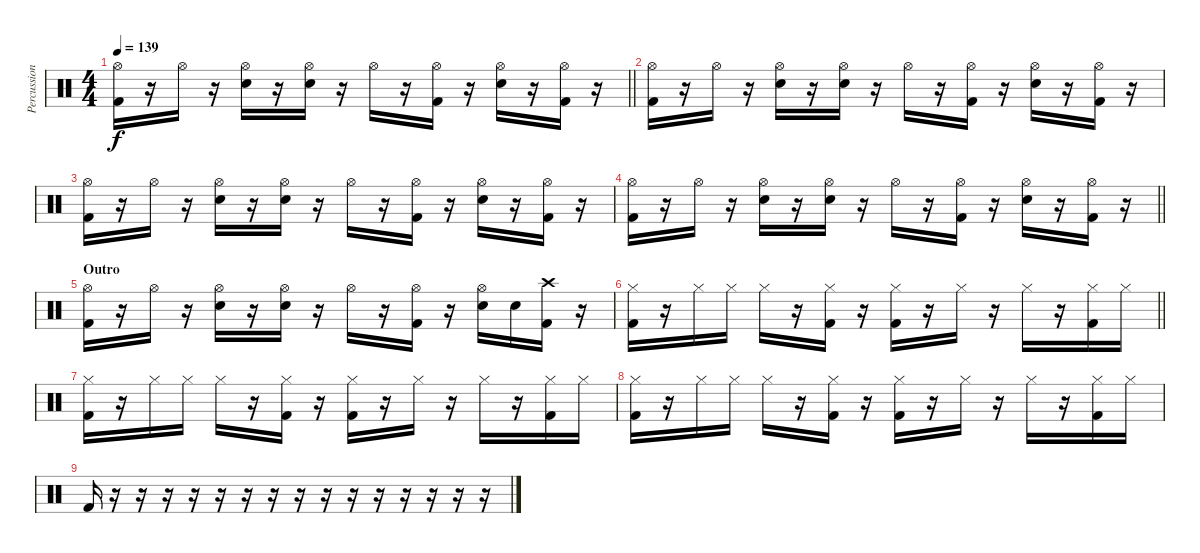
\track ("Percussion" "Percussion") {instrument percussion}
\staff {score}
\articulation defaults
\ts (4 4)
\tempo 139
\clef neutral
\barLineRight lightlight
\ks c
("Hi-Hat (open)" "Kick (hit) 2").16{dy f} r.16 "Hi-Hat (open)".16 r.16 ("Hi-Hat (open)" "Snare (hit) 2").16 r.16 ("Hi-Hat (open)" "Snare (hit) 2").16 r.16 "Hi-Hat (open)".16 r.16 ("Hi-Hat (open)" "Kick (hit) 2").16 r.16 ("Hi-Hat (open)" "Snare (hit) 2").16 r.16 ("Hi-Hat (open)" "Kick (hit) 2").16 r.16 |
("Hi-Hat (open)" "Kick (hit) 2").16 r.16 "Hi-Hat (open)".16 r.16 ("Hi-Hat (open)" "Snare (hit) 2").16 r.16 ("Hi-Hat (open)" "Snare (hit) 2").16 r.16 "Hi-Hat (open)".16 r.16 ("Hi-Hat (open)" "Kick (hit) 2").16 r.16 ("Hi-Hat (open)" "Snare (hit) 2").16 r.16 ("Hi-Hat (open)" "Kick (hit) 2").16 r.16 |
("Hi-Hat (open)" "Kick (hit) 2").16 r.16 "Hi-Hat (open)".16 r.16 ("Hi-Hat (open)" "Snare (hit) 2").16 r.16 ("Hi-Hat (open)" "Snare (hit) 2").16 r.16 "Hi-Hat (open)".16 r.16 ("Hi-Hat (open)" "Kick (hit) 2").16 r.16 ("Hi-Hat (open)" "Snare (hit) 2").16 r.16 ("Hi-Hat (open)" "Kick (hit) 2").16 r.16 |
\barLineRight lightlight
("Hi-Hat (open)" "Kick (hit) 2").16 r.16 "Hi-Hat (open)".16 r.16 ("Hi-Hat (open)" "Snare (hit) 2").16 r.16 ("Hi-Hat (open)" "Snare (hit) 2").16 r.16 "Hi-Hat (open)".16 r.16 ("Hi-Hat (open)" "Kick (hit) 2").16 r.16 ("Hi-Hat (open)" "Snare (hit) 2").16 r.16 ("Hi-Hat (open)" "Kick (hit) 2").16 r.16 |
\section ("" "Outro")
("Hi-Hat (open)" "Kick (hit) 2").16 r.16 "Hi-Hat (open)".16 r.16 ("Hi-Hat (open)" "Snare (hit) 2").16 r.16 ("Hi-Hat (open)" "Snare (hit) 2").16 r.16 "Hi-Hat (open)".16 r.16 ("Hi-Hat (open)" "Kick (hit) 2").16 r.16 ("Hi-Hat (open)" "Snare (hit) 2").16 "Snare (hit) 2".16 ("Crash high (hit)" "Kick (hit) 2").16 r.16 |
\barLineRight lightlight
("Hi-Hat (closed)" "Kick (hit) 2").16 r.16 "Hi-Hat (closed)".16 "Hi-Hat (closed)".16 "Hi-Hat (closed)".16 r.16 ("Hi-Hat (closed)" "Kick (hit) 2").16 r.16 ("Hi-Hat (closed)" "Kick (hit) 2").16 r.16 "Hi-Hat (closed)".16 r.16 "Hi-Hat (closed)".16 r.16 ("Hi-Hat (closed)" "Kick (hit) 2").16 "Hi-Hat (closed)".16 |
("Hi-Hat (closed)" "Kick (hit) 2").16 r.16 "Hi-Hat (closed)".16 "Hi-Hat (closed)".16 "Hi-Hat (closed)".16 r.16 ("Hi-Hat (closed)" "Kick (hit) 2").16 r.16 ("Hi-Hat (closed)" "Kick (hit) 2").16 r.16 "Hi-Hat (closed)".16 r.16 "Hi-Hat (closed)".16 r.16 ("Hi-Hat (closed)" "Kick (hit) 2").16 "Hi-Hat (closed)".16 |
("Hi-Hat (closed)" "Kick (hit) 2").16 r.16 "Hi-Hat (closed)".16 "Hi-Hat (closed)".16 "Hi-Hat (closed)".16 r.16 ("Hi-Hat (closed)" "Kick (hit) 2").16 r.16 ("Hi-Hat (closed)" "Kick (hit) 2").16 r.16 "Hi-Hat (closed)".16 r.16 "Hi-Hat (closed)".16 r.16 ("Hi-Hat (closed)" "Kick (hit) 2").16 "Hi-Hat (closed)".16 |
"Kick (hit) 2".16 r.16 r.16 r.16 r.16 r.16 r.16 r.16 r.16 r.16 r.16 r.16 r.16 r.16 r.16 r.16
